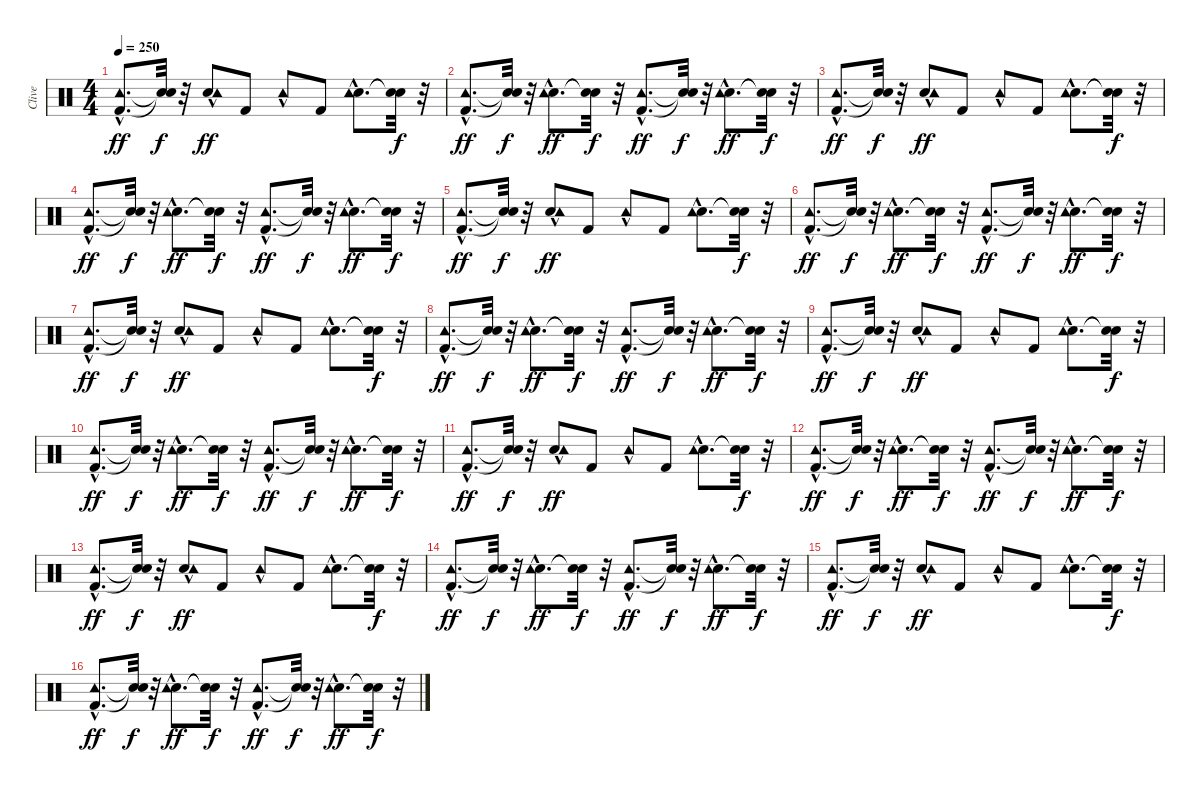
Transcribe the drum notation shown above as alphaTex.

\track ("Clive" "Clive") {instrument percussion}
\staff {score}
\articulation defaults
\ts (4 4)
\tempo 250
\clef neutral
\ks c
("Kick (hit) 2"{hac} "Tambourine (hit)"{hac}).8{d dy ff} ("Snare (hit)"{t} "Snare (hit)"{t}).32{dy f} r.32 ("Snare (hit) 2" "Tambourine (hit)"{hac}).8{dy ff} "Kick (hit) 2".8 "Tambourine (hit)"{hac}.8 "Kick (hit) 2".8 ("Snare (hit) 2"{hac} "Tambourine (hit)"{hac}).8{d} ("Snare (hit)"{t} "Snare (hit)"{t}).32{dy f} r.32 |
("Kick (hit) 2"{hac} "Tambourine (hit)"{hac}).8{d dy ff} ("Snare (hit)"{t} "Snare (hit)"{t}).32{dy f} r.32 ("Snare (hit) 2"{hac} "Tambourine (hit)"{hac}).8{d dy ff} ("Snare (hit)"{t} "Snare (hit)"{t}).32{dy f} r.32 ("Kick (hit) 2"{hac} "Tambourine (hit)"{hac}).8{d dy ff} ("Snare (hit)"{t} "Snare (hit)"{t}).32{dy f} r.32 ("Snare (hit) 2"{hac} "Tambourine (hit)"{hac}).8{d dy ff} ("Snare (hit)"{t} "Snare (hit)"{t}).32{dy f} r.32 |
("Kick (hit) 2"{hac} "Tambourine (hit)"{hac}).8{d dy ff} ("Snare (hit)"{t} "Snare (hit)"{t}).32{dy f} r.32 ("Snare (hit) 2" "Tambourine (hit)"{hac}).8{dy ff} "Kick (hit) 2".8 "Tambourine (hit)"{hac}.8 "Kick (hit) 2".8 ("Snare (hit) 2"{hac} "Tambourine (hit)"{hac}).8{d} ("Snare (hit)"{t} "Snare (hit)"{t}).32{dy f} r.32 |
("Kick (hit) 2"{hac} "Tambourine (hit)"{hac}).8{d dy ff} ("Snare (hit)"{t} "Snare (hit)"{t}).32{dy f} r.32 ("Snare (hit) 2"{hac} "Tambourine (hit)"{hac}).8{d dy ff} ("Snare (hit)"{t} "Snare (hit)"{t}).32{dy f} r.32 ("Kick (hit) 2"{hac} "Tambourine (hit)"{hac}).8{d dy ff} ("Snare (hit)"{t} "Snare (hit)"{t}).32{dy f} r.32 ("Snare (hit) 2"{hac} "Tambourine (hit)"{hac}).8{d dy ff} ("Snare (hit)"{t} "Snare (hit)"{t}).32{dy f} r.32 |
("Kick (hit) 2"{hac} "Tambourine (hit)"{hac}).8{d dy ff} ("Snare (hit)"{t} "Snare (hit)"{t}).32{dy f} r.32 ("Snare (hit) 2" "Tambourine (hit)"{hac}).8{dy ff} "Kick (hit) 2".8 "Tambourine (hit)"{hac}.8 "Kick (hit) 2".8 ("Snare (hit) 2"{hac} "Tambourine (hit)"{hac}).8{d} ("Snare (hit)"{t} "Snare (hit)"{t}).32{dy f} r.32 |
("Kick (hit) 2"{hac} "Tambourine (hit)"{hac}).8{d dy ff} ("Snare (hit)"{t} "Snare (hit)"{t}).32{dy f} r.32 ("Snare (hit) 2"{hac} "Tambourine (hit)"{hac}).8{d dy ff} ("Snare (hit)"{t} "Snare (hit)"{t}).32{dy f} r.32 ("Kick (hit) 2"{hac} "Tambourine (hit)"{hac}).8{d dy ff} ("Snare (hit)"{t} "Snare (hit)"{t}).32{dy f} r.32 ("Snare (hit) 2"{hac} "Tambourine (hit)"{hac}).8{d dy ff} ("Snare (hit)"{t} "Snare (hit)"{t}).32{dy f} r.32 |
("Kick (hit) 2"{hac} "Tambourine (hit)"{hac}).8{d dy ff} ("Snare (hit)"{t} "Snare (hit)"{t}).32{dy f} r.32 ("Snare (hit) 2" "Tambourine (hit)"{hac}).8{dy ff} "Kick (hit) 2".8 "Tambourine (hit)"{hac}.8 "Kick (hit) 2".8 ("Snare (hit) 2"{hac} "Tambourine (hit)"{hac}).8{d} ("Snare (hit)"{t} "Snare (hit)"{t}).32{dy f} r.32 |
("Kick (hit) 2"{hac} "Tambourine (hit)"{hac}).8{d dy ff} ("Snare (hit)"{t} "Snare (hit)"{t}).32{dy f} r.32 ("Snare (hit) 2"{hac} "Tambourine (hit)"{hac}).8{d dy ff} ("Snare (hit)"{t} "Snare (hit)"{t}).32{dy f} r.32 ("Kick (hit) 2"{hac} "Tambourine (hit)"{hac}).8{d dy ff} ("Snare (hit)"{t} "Snare (hit)"{t}).32{dy f} r.32 ("Snare (hit) 2"{hac} "Tambourine (hit)"{hac}).8{d dy ff} ("Snare (hit)"{t} "Snare (hit)"{t}).32{dy f} r.32 |
("Kick (hit) 2"{hac} "Tambourine (hit)"{hac}).8{d dy ff} ("Snare (hit)"{t} "Snare (hit)"{t}).32{dy f} r.32 ("Snare (hit) 2" "Tambourine (hit)"{hac}).8{dy ff} "Kick (hit) 2".8 "Tambourine (hit)"{hac}.8 "Kick (hit) 2".8 ("Snare (hit) 2"{hac} "Tambourine (hit)"{hac}).8{d} ("Snare (hit)"{t} "Snare (hit)"{t}).32{dy f} r.32 |
("Kick (hit) 2"{hac} "Tambourine (hit)"{hac}).8{d dy ff} ("Snare (hit)"{t} "Snare (hit)"{t}).32{dy f} r.32 ("Snare (hit) 2"{hac} "Tambourine (hit)"{hac}).8{d dy ff} ("Snare (hit)"{t} "Snare (hit)"{t}).32{dy f} r.32 ("Kick (hit) 2"{hac} "Tambourine (hit)"{hac}).8{d dy ff} ("Snare (hit)"{t} "Snare (hit)"{t}).32{dy f} r.32 ("Snare (hit) 2"{hac} "Tambourine (hit)"{hac}).8{d dy ff} ("Snare (hit)"{t} "Snare (hit)"{t}).32{dy f} r.32 |
("Kick (hit) 2"{hac} "Tambourine (hit)"{hac}).8{d dy ff} ("Snare (hit)"{t} "Snare (hit)"{t}).32{dy f} r.32 ("Snare (hit) 2" "Tambourine (hit)"{hac}).8{dy ff} "Kick (hit) 2".8 "Tambourine (hit)"{hac}.8 "Kick (hit) 2".8 ("Snare (hit) 2"{hac} "Tambourine (hit)"{hac}).8{d} ("Snare (hit)"{t} "Snare (hit)"{t}).32{dy f} r.32 |
("Kick (hit) 2"{hac} "Tambourine (hit)"{hac}).8{d dy ff} ("Snare (hit)"{t} "Snare (hit)"{t}).32{dy f} r.32 ("Snare (hit) 2"{hac} "Tambourine (hit)"{hac}).8{d dy ff} ("Snare (hit)"{t} "Snare (hit)"{t}).32{dy f} r.32 ("Kick (hit) 2"{hac} "Tambourine (hit)"{hac}).8{d dy ff} ("Snare (hit)"{t} "Snare (hit)"{t}).32{dy f} r.32 ("Snare (hit) 2"{hac} "Tambourine (hit)"{hac}).8{d dy ff} ("Snare (hit)"{t} "Snare (hit)"{t}).32{dy f} r.32 |
("Kick (hit) 2"{hac} "Tambourine (hit)"{hac}).8{d dy ff} ("Snare (hit)"{t} "Snare (hit)"{t}).32{dy f} r.32 ("Snare (hit) 2" "Tambourine (hit)"{hac}).8{dy ff} "Kick (hit) 2".8 "Tambourine (hit)"{hac}.8 "Kick (hit) 2".8 ("Snare (hit) 2"{hac} "Tambourine (hit)"{hac}).8{d} ("Snare (hit)"{t} "Snare (hit)"{t}).32{dy f} r.32 |
("Kick (hit) 2"{hac} "Tambourine (hit)"{hac}).8{d dy ff} ("Snare (hit)"{t} "Snare (hit)"{t}).32{dy f} r.32 ("Snare (hit) 2"{hac} "Tambourine (hit)"{hac}).8{d dy ff} ("Snare (hit)"{t} "Snare (hit)"{t}).32{dy f} r.32 ("Kick (hit) 2"{hac} "Tambourine (hit)"{hac}).8{d dy ff} ("Snare (hit)"{t} "Snare (hit)"{t}).32{dy f} r.32 ("Snare (hit) 2"{hac} "Tambourine (hit)"{hac}).8{d dy ff} ("Snare (hit)"{t} "Snare (hit)"{t}).32{dy f} r.32 |
("Kick (hit) 2"{hac} "Tambourine (hit)"{hac}).8{d dy ff} ("Snare (hit)"{t} "Snare (hit)"{t}).32{dy f} r.32 ("Snare (hit) 2" "Tambourine (hit)"{hac}).8{dy ff} "Kick (hit) 2".8 "Tambourine (hit)"{hac}.8 "Kick (hit) 2".8 ("Snare (hit) 2"{hac} "Tambourine (hit)"{hac}).8{d} ("Snare (hit)"{t} "Snare (hit)"{t}).32{dy f} r.32 |
("Kick (hit) 2"{hac} "Tambourine (hit)"{hac}).8{d dy ff} ("Snare (hit)"{t} "Snare (hit)"{t}).32{dy f} r.32 ("Snare (hit) 2"{hac} "Tambourine (hit)"{hac}).8{d dy ff} ("Snare (hit)"{t} "Snare (hit)"{t}).32{dy f} r.32 ("Kick (hit) 2"{hac} "Tambourine (hit)"{hac}).8{d dy ff} ("Snare (hit)"{t} "Snare (hit)"{t}).32{dy f} r.32 ("Snare (hit) 2"{hac} "Tambourine (hit)"{hac}).8{d dy ff} ("Snare (hit)"{t} "Snare (hit)"{t}).32{dy f} r.32
